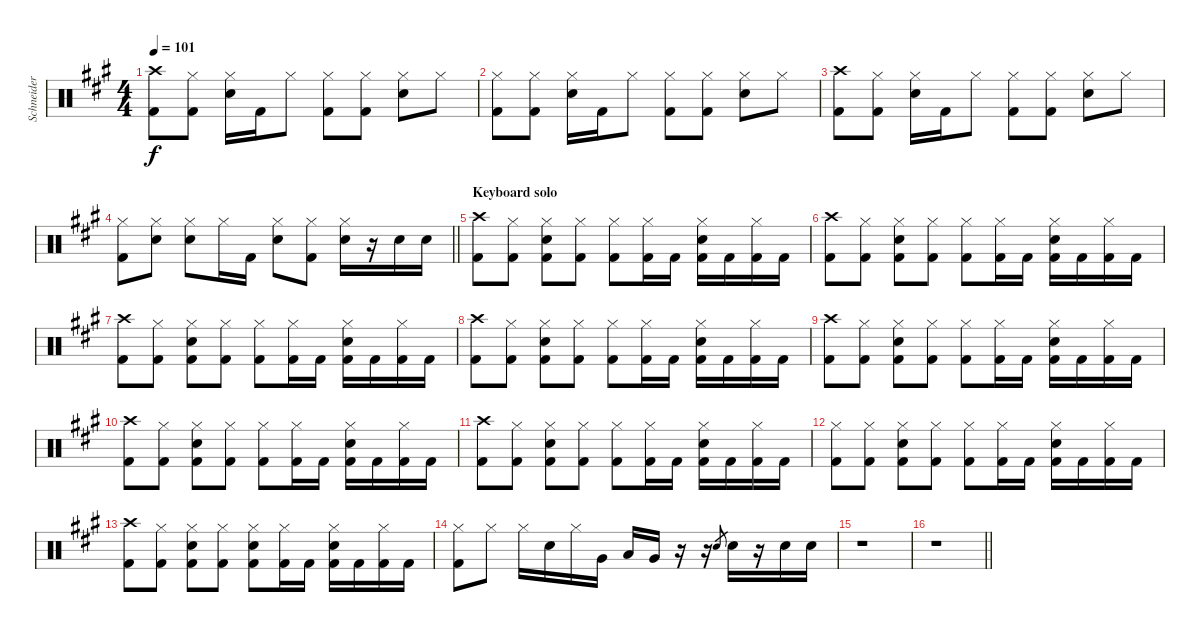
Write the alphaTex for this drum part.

\track ("Schneider" "Schneider") {instrument percussion}
\staff {score}
\articulation defaults
\ts (4 4)
\tempo 101
\clef neutral
\ks f#minor
("Crash high (hit)" "Kick (hit) 2").8{dy f} ("Hi-Hat (closed)" "Kick (hit) 2").8 ("Hi-Hat (closed)" "Snare (hit) 2").16 "Kick (hit) 2".16 "Hi-Hat (closed)".8 ("Hi-Hat (closed)" "Kick (hit) 2").8 ("Hi-Hat (closed)" "Kick (hit) 2").8 ("Hi-Hat (closed)" "Snare (hit) 2").8 "Hi-Hat (closed)".8 |
("Hi-Hat (closed)" "Kick (hit) 2").8 ("Hi-Hat (closed)" "Kick (hit) 2").8 ("Hi-Hat (closed)" "Snare (hit) 2").16 "Kick (hit) 2".16 "Hi-Hat (closed)".8 ("Hi-Hat (closed)" "Kick (hit) 2").8 ("Hi-Hat (closed)" "Kick (hit) 2").8 ("Hi-Hat (closed)" "Snare (hit) 2").8 "Hi-Hat (closed)".8 |
("Crash high (hit)" "Kick (hit) 2").8 ("Hi-Hat (closed)" "Kick (hit) 2").8 ("Hi-Hat (closed)" "Snare (hit) 2").16 "Kick (hit) 2".16 "Hi-Hat (closed)".8 ("Hi-Hat (closed)" "Kick (hit) 2").8 ("Hi-Hat (closed)" "Kick (hit) 2").8 ("Hi-Hat (closed)" "Snare (hit) 2").8 "Hi-Hat (closed)".8 |
\barLineRight lightlight
("Hi-Hat (closed)" "Kick (hit) 2").8 ("Hi-Hat (closed)" "Snare (hit) 2").8 ("Hi-Hat (closed)" "Snare (hit) 2").8 "Hi-Hat (closed)".16 "Kick (hit) 2".16 ("Hi-Hat (closed)" "Snare (hit) 2").8 ("Hi-Hat (closed)" "Kick (hit) 2").8 ("Hi-Hat (closed)" "Snare (hit) 2").16 r.16 "Snare (hit) 2".16 "Snare (hit) 2".16 |
\section ("" "Keyboard solo")
("Crash high (hit)" "Kick (hit) 2").8 ("Hi-Hat (closed)" "Kick (hit) 2").8 ("Hi-Hat (closed)" "Snare (hit) 2" "Kick (hit) 2").8 ("Hi-Hat (closed)" "Kick (hit) 2").8 ("Hi-Hat (closed)" "Kick (hit) 2").8 ("Hi-Hat (closed)" "Kick (hit) 2").16 "Kick (hit) 2".16 ("Hi-Hat (closed)" "Snare (hit) 2" "Kick (hit) 2").16 "Kick (hit) 2".16 ("Hi-Hat (closed)" "Kick (hit) 2").16 "Kick (hit) 2".16 |
("Crash high (hit)" "Kick (hit) 2").8 ("Hi-Hat (closed)" "Kick (hit) 2").8 ("Hi-Hat (closed)" "Snare (hit) 2" "Kick (hit) 2").8 ("Hi-Hat (closed)" "Kick (hit) 2").8 ("Hi-Hat (closed)" "Kick (hit) 2").8 ("Hi-Hat (closed)" "Kick (hit) 2").16 "Kick (hit) 2".16 ("Hi-Hat (closed)" "Snare (hit) 2" "Kick (hit) 2").16 "Kick (hit) 2".16 ("Hi-Hat (closed)" "Kick (hit) 2").16 "Kick (hit) 2".16 |
("Crash high (hit)" "Kick (hit) 2").8 ("Hi-Hat (closed)" "Kick (hit) 2").8 ("Hi-Hat (closed)" "Snare (hit) 2" "Kick (hit) 2").8 ("Hi-Hat (closed)" "Kick (hit) 2").8 ("Hi-Hat (closed)" "Kick (hit) 2").8 ("Hi-Hat (closed)" "Kick (hit) 2").16 "Kick (hit) 2".16 ("Hi-Hat (closed)" "Snare (hit) 2" "Kick (hit) 2").16 "Kick (hit) 2".16 ("Hi-Hat (closed)" "Kick (hit) 2").16 "Kick (hit) 2".16 |
("Crash high (hit)" "Kick (hit) 2").8 ("Hi-Hat (closed)" "Kick (hit) 2").8 ("Hi-Hat (closed)" "Snare (hit) 2" "Kick (hit) 2").8 ("Hi-Hat (closed)" "Kick (hit) 2").8 ("Hi-Hat (closed)" "Kick (hit) 2").8 ("Hi-Hat (closed)" "Kick (hit) 2").16 "Kick (hit) 2".16 ("Hi-Hat (closed)" "Snare (hit) 2" "Kick (hit) 2").16 "Kick (hit) 2".16 ("Hi-Hat (closed)" "Kick (hit) 2").16 "Kick (hit) 2".16 |
("Crash high (hit)" "Kick (hit) 2").8 ("Hi-Hat (closed)" "Kick (hit) 2").8 ("Hi-Hat (closed)" "Snare (hit) 2" "Kick (hit) 2").8 ("Hi-Hat (closed)" "Kick (hit) 2").8 ("Hi-Hat (closed)" "Kick (hit) 2").8 ("Hi-Hat (closed)" "Kick (hit) 2").16 "Kick (hit) 2".16 ("Hi-Hat (closed)" "Snare (hit) 2" "Kick (hit) 2").16 "Kick (hit) 2".16 ("Hi-Hat (closed)" "Kick (hit) 2").16 "Kick (hit) 2".16 |
("Crash high (hit)" "Kick (hit) 2").8 ("Hi-Hat (closed)" "Kick (hit) 2").8 ("Hi-Hat (closed)" "Snare (hit) 2" "Kick (hit) 2").8 ("Hi-Hat (closed)" "Kick (hit) 2").8 ("Hi-Hat (closed)" "Kick (hit) 2").8 ("Hi-Hat (closed)" "Kick (hit) 2").16 "Kick (hit) 2".16 ("Hi-Hat (closed)" "Snare (hit) 2" "Kick (hit) 2").16 "Kick (hit) 2".16 ("Hi-Hat (closed)" "Kick (hit) 2").16 "Kick (hit) 2".16 |
("Crash high (hit)" "Kick (hit) 2").8 ("Hi-Hat (closed)" "Kick (hit) 2").8 ("Hi-Hat (closed)" "Snare (hit) 2" "Kick (hit) 2").8 ("Hi-Hat (closed)" "Kick (hit) 2").8 ("Hi-Hat (closed)" "Kick (hit) 2").8 ("Hi-Hat (closed)" "Kick (hit) 2").16 "Kick (hit) 2".16 ("Hi-Hat (closed)" "Snare (hit) 2" "Kick (hit) 2").16 "Kick (hit) 2".16 ("Hi-Hat (closed)" "Kick (hit) 2").16 "Kick (hit) 2".16 |
("Hi-Hat (closed)" "Kick (hit) 2").8 ("Hi-Hat (closed)" "Kick (hit) 2").8 ("Hi-Hat (closed)" "Snare (hit) 2" "Kick (hit) 2").8 ("Hi-Hat (closed)" "Kick (hit) 2").8 ("Hi-Hat (closed)" "Kick (hit) 2").8 ("Hi-Hat (closed)" "Kick (hit) 2").16 "Kick (hit) 2".16 ("Hi-Hat (closed)" "Snare (hit) 2" "Kick (hit) 2").16 "Kick (hit) 2".16 ("Hi-Hat (closed)" "Kick (hit) 2").16 "Kick (hit) 2".16 |
("Crash high (hit)" "Kick (hit) 2").8 ("Hi-Hat (closed)" "Kick (hit) 2").8 ("Hi-Hat (closed)" "Snare (hit) 2" "Kick (hit) 2").8 ("Hi-Hat (closed)" "Kick (hit) 2").8 ("Hi-Hat (closed)" "Snare (hit) 2" "Kick (hit) 2").8 ("Hi-Hat (closed)" "Kick (hit) 2").16 "Kick (hit) 2".16 ("Hi-Hat (closed)" "Snare (hit) 2" "Kick (hit) 2").16 "Kick (hit) 2".16 ("Hi-Hat (closed)" "Kick (hit) 2").16 "Kick (hit) 2".16 |
("Hi-Hat (closed)" "Kick (hit) 2").8 "Hi-Hat (closed)".8 "Hi-Hat (closed)".16 "Snare (hit) 2".16 "Hi-Hat (closed)".16 "Very Low Tom (hit)".16 "Low Tom (hit)".16 "Very Low Tom (hit)".16 r.16 r.16 "Snare (hit) 2".8{gr} "Snare (hit) 2".16 r.16 "Snare (hit) 2".16 "Snare (hit) 2".16 |
r.1 |
\barLineRight lightlight
r.1
